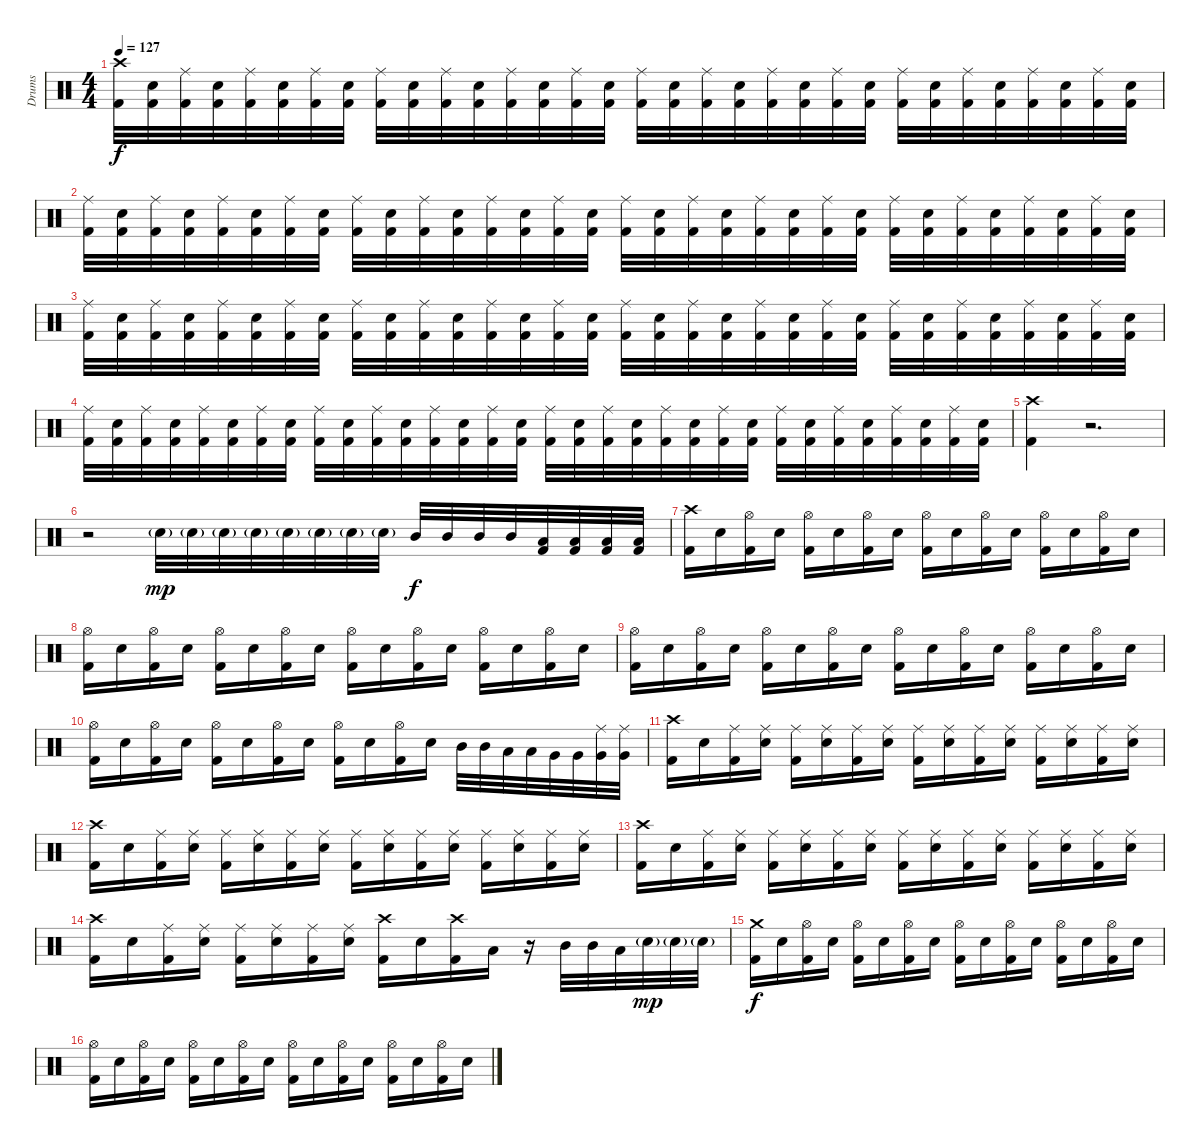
\track ("Drums" "Drums") {instrument percussion}
\staff {score}
\articulation defaults
\ts (4 4)
\tempo 127
\clef neutral
\ks c
("Crash high (hit)" "Kick (hit) 2").32{dy f} ("Electric Snare (hit)" "Kick (hit) 2").32 ("Ride (middle)" "Kick (hit) 2").32 ("Electric Snare (hit)" "Kick (hit) 2").32 ("Ride (middle)" "Kick (hit) 2").32 ("Electric Snare (hit)" "Kick (hit) 2").32 ("Ride (middle)" "Kick (hit) 2").32 ("Electric Snare (hit)" "Kick (hit) 2").32 ("Ride (middle)" "Kick (hit) 2").32 ("Electric Snare (hit)" "Kick (hit) 2").32 ("Ride (middle)" "Kick (hit) 2").32 ("Electric Snare (hit)" "Kick (hit) 2").32 ("Ride (middle)" "Kick (hit) 2").32 ("Electric Snare (hit)" "Kick (hit) 2").32 ("Ride (middle)" "Kick (hit) 2").32 ("Electric Snare (hit)" "Kick (hit) 2").32 ("Ride (middle)" "Kick (hit) 2").32 ("Electric Snare (hit)" "Kick (hit) 2").32 ("Ride (middle)" "Kick (hit) 2").32 ("Electric Snare (hit)" "Kick (hit) 2").32 ("Ride (middle)" "Kick (hit) 2").32 ("Electric Snare (hit)" "Kick (hit) 2").32 ("Ride (middle)" "Kick (hit) 2").32 ("Electric Snare (hit)" "Kick (hit) 2").32 ("Ride (middle)" "Kick (hit) 2").32 ("Electric Snare (hit)" "Kick (hit) 2").32 ("Ride (middle)" "Kick (hit) 2").32 ("Electric Snare (hit)" "Kick (hit) 2").32 ("Ride (middle)" "Kick (hit) 2").32 ("Electric Snare (hit)" "Kick (hit) 2").32 ("Ride (middle)" "Kick (hit) 2").32 ("Electric Snare (hit)" "Kick (hit) 2").32 |
("Ride (middle)" "Kick (hit) 2").32 ("Electric Snare (hit)" "Kick (hit) 2").32 ("Ride (middle)" "Kick (hit) 2").32 ("Electric Snare (hit)" "Kick (hit) 2").32 ("Ride (middle)" "Kick (hit) 2").32 ("Electric Snare (hit)" "Kick (hit) 2").32 ("Ride (middle)" "Kick (hit) 2").32 ("Electric Snare (hit)" "Kick (hit) 2").32 ("Ride (middle)" "Kick (hit) 2").32 ("Electric Snare (hit)" "Kick (hit) 2").32 ("Ride (middle)" "Kick (hit) 2").32 ("Electric Snare (hit)" "Kick (hit) 2").32 ("Ride (middle)" "Kick (hit) 2").32 ("Electric Snare (hit)" "Kick (hit) 2").32 ("Ride (middle)" "Kick (hit) 2").32 ("Electric Snare (hit)" "Kick (hit) 2").32 ("Ride (middle)" "Kick (hit) 2").32 ("Electric Snare (hit)" "Kick (hit) 2").32 ("Ride (middle)" "Kick (hit) 2").32 ("Electric Snare (hit)" "Kick (hit) 2").32 ("Ride (middle)" "Kick (hit) 2").32 ("Electric Snare (hit)" "Kick (hit) 2").32 ("Ride (middle)" "Kick (hit) 2").32 ("Electric Snare (hit)" "Kick (hit) 2").32 ("Ride (middle)" "Kick (hit) 2").32 ("Electric Snare (hit)" "Kick (hit) 2").32 ("Ride (middle)" "Kick (hit) 2").32 ("Electric Snare (hit)" "Kick (hit) 2").32 ("Ride (middle)" "Kick (hit) 2").32 ("Electric Snare (hit)" "Kick (hit) 2").32 ("Ride (middle)" "Kick (hit) 2").32 ("Electric Snare (hit)" "Kick (hit) 2").32 |
("Ride (middle)" "Kick (hit) 2").32 ("Electric Snare (hit)" "Kick (hit) 2").32 ("Ride (middle)" "Kick (hit) 2").32 ("Electric Snare (hit)" "Kick (hit) 2").32 ("Ride (middle)" "Kick (hit) 2").32 ("Electric Snare (hit)" "Kick (hit) 2").32 ("Ride (middle)" "Kick (hit) 2").32 ("Electric Snare (hit)" "Kick (hit) 2").32 ("Ride (middle)" "Kick (hit) 2").32 ("Electric Snare (hit)" "Kick (hit) 2").32 ("Ride (middle)" "Kick (hit) 2").32 ("Electric Snare (hit)" "Kick (hit) 2").32 ("Ride (middle)" "Kick (hit) 2").32 ("Electric Snare (hit)" "Kick (hit) 2").32 ("Ride (middle)" "Kick (hit) 2").32 ("Electric Snare (hit)" "Kick (hit) 2").32 ("Ride (middle)" "Kick (hit) 2").32 ("Electric Snare (hit)" "Kick (hit) 2").32 ("Ride (middle)" "Kick (hit) 2").32 ("Electric Snare (hit)" "Kick (hit) 2").32 ("Ride (middle)" "Kick (hit) 2").32 ("Electric Snare (hit)" "Kick (hit) 2").32 ("Ride (middle)" "Kick (hit) 2").32 ("Electric Snare (hit)" "Kick (hit) 2").32 ("Ride (middle)" "Kick (hit) 2").32 ("Electric Snare (hit)" "Kick (hit) 2").32 ("Ride (middle)" "Kick (hit) 2").32 ("Electric Snare (hit)" "Kick (hit) 2").32 ("Ride (middle)" "Kick (hit) 2").32 ("Electric Snare (hit)" "Kick (hit) 2").32 ("Ride (middle)" "Kick (hit) 2").32 ("Electric Snare (hit)" "Kick (hit) 2").32 |
("Ride (middle)" "Kick (hit) 2").32 ("Electric Snare (hit)" "Kick (hit) 2").32 ("Ride (middle)" "Kick (hit) 2").32 ("Electric Snare (hit)" "Kick (hit) 2").32 ("Ride (middle)" "Kick (hit) 2").32 ("Electric Snare (hit)" "Kick (hit) 2").32 ("Ride (middle)" "Kick (hit) 2").32 ("Electric Snare (hit)" "Kick (hit) 2").32 ("Ride (middle)" "Kick (hit) 2").32 ("Electric Snare (hit)" "Kick (hit) 2").32 ("Ride (middle)" "Kick (hit) 2").32 ("Electric Snare (hit)" "Kick (hit) 2").32 ("Ride (middle)" "Kick (hit) 2").32 ("Electric Snare (hit)" "Kick (hit) 2").32 ("Ride (middle)" "Kick (hit) 2").32 ("Electric Snare (hit)" "Kick (hit) 2").32 ("Ride (middle)" "Kick (hit) 2").32 ("Electric Snare (hit)" "Kick (hit) 2").32 ("Ride (middle)" "Kick (hit) 2").32 ("Electric Snare (hit)" "Kick (hit) 2").32 ("Ride (middle)" "Kick (hit) 2").32 ("Electric Snare (hit)" "Kick (hit) 2").32 ("Ride (middle)" "Kick (hit) 2").32 ("Electric Snare (hit)" "Kick (hit) 2").32 ("Ride (middle)" "Kick (hit) 2").32 ("Electric Snare (hit)" "Kick (hit) 2").32 ("Ride (middle)" "Kick (hit) 2").32 ("Electric Snare (hit)" "Kick (hit) 2").32 ("Ride (middle)" "Kick (hit) 2").32 ("Electric Snare (hit)" "Kick (hit) 2").32 ("Ride (middle)" "Kick (hit) 2").32 ("Electric Snare (hit)" "Kick (hit) 2").32 |
("Crash high (hit)" "Kick (hit) 2").4 r.2{d volume 0} |
r.2 "Electric Snare (hit)"{g}.32{dy mp volume 13} "Electric Snare (hit)"{g}.32 "Electric Snare (hit)"{g}.32 "Electric Snare (hit)"{g}.32 "Electric Snare (hit)"{g}.32 "Electric Snare (hit)"{g}.32 "Electric Snare (hit)"{g}.32 "Electric Snare (hit)"{g}.32 "Mid Tom (hit)".32{dy f} "Mid Tom (hit)".32 "Mid Tom (hit)".32 "Mid Tom (hit)".32 ("Low Tom (hit)" "Kick (hit) 2").32 ("Low Tom (hit)" "Kick (hit) 2").32 ("Low Tom (hit)" "Kick (hit) 2").32 ("Low Tom (hit)" "Kick (hit) 2").32 |
("Crash high (hit)" "Kick (hit) 2").16 "Electric Snare (hit)".16 ("Hi-Hat (open)" "Kick (hit) 2").16 "Electric Snare (hit)".16 ("Hi-Hat (open)" "Kick (hit) 2").16 "Electric Snare (hit)".16 ("Hi-Hat (open)" "Kick (hit) 2").16 "Electric Snare (hit)".16 ("Hi-Hat (open)" "Kick (hit) 2").16 "Electric Snare (hit)".16 ("Hi-Hat (open)" "Kick (hit) 2").16 "Electric Snare (hit)".16 ("Hi-Hat (open)" "Kick (hit) 2").16 "Electric Snare (hit)".16 ("Hi-Hat (open)" "Kick (hit) 2").16 "Electric Snare (hit)".16 |
("Hi-Hat (open)" "Kick (hit) 2").16 "Electric Snare (hit)".16 ("Hi-Hat (open)" "Kick (hit) 2").16 "Electric Snare (hit)".16 ("Hi-Hat (open)" "Kick (hit) 2").16 "Electric Snare (hit)".16 ("Hi-Hat (open)" "Kick (hit) 2").16 "Electric Snare (hit)".16 ("Hi-Hat (open)" "Kick (hit) 2").16 "Electric Snare (hit)".16 ("Hi-Hat (open)" "Kick (hit) 2").16 "Electric Snare (hit)".16 ("Hi-Hat (open)" "Kick (hit) 2").16 "Electric Snare (hit)".16 ("Hi-Hat (open)" "Kick (hit) 2").16 "Electric Snare (hit)".16 |
("Hi-Hat (open)" "Kick (hit) 2").16 "Electric Snare (hit)".16 ("Hi-Hat (open)" "Kick (hit) 2").16 "Electric Snare (hit)".16 ("Hi-Hat (open)" "Kick (hit) 2").16 "Electric Snare (hit)".16 ("Hi-Hat (open)" "Kick (hit) 2").16 "Electric Snare (hit)".16 ("Hi-Hat (open)" "Kick (hit) 2").16 "Electric Snare (hit)".16 ("Hi-Hat (open)" "Kick (hit) 2").16 "Electric Snare (hit)".16 ("Hi-Hat (open)" "Kick (hit) 2").16 "Electric Snare (hit)".16 ("Hi-Hat (open)" "Kick (hit) 2").16 "Electric Snare (hit)".16 |
("Hi-Hat (open)" "Kick (hit) 2").16 "Electric Snare (hit)".16 ("Hi-Hat (open)" "Kick (hit) 2").16 "Electric Snare (hit)".16 ("Hi-Hat (open)" "Kick (hit) 2").16 "Electric Snare (hit)".16 ("Hi-Hat (open)" "Kick (hit) 2").16 "Electric Snare (hit)".16 ("Hi-Hat (open)" "Kick (hit) 2").16 "Electric Snare (hit)".16 ("Hi-Hat (open)" "Kick (hit) 2").16 "Electric Snare (hit)".16 "Mid Tom (hit)".32 "Mid Tom (hit)".32 "Low Tom (hit)".32 "Low Tom (hit)".32 "Very Low Tom (hit)".32 "Very Low Tom (hit)".32 ("Ride (middle)" "Very Low Tom (hit)").32 ("Ride (middle)" "Very Low Tom (hit)").32 |
("Crash high (hit)" "Kick (hit) 2").16 "Electric Snare (hit)".16 ("Ride (middle)" "Kick (hit) 2").16 ("Ride (middle)" "Electric Snare (hit)").16 ("Ride (middle)" "Kick (hit) 2").16 ("Ride (middle)" "Electric Snare (hit)").16 ("Ride (middle)" "Kick (hit) 2").16 ("Ride (middle)" "Electric Snare (hit)").16 ("Ride (middle)" "Kick (hit) 2").16 ("Ride (middle)" "Electric Snare (hit)").16 ("Ride (middle)" "Kick (hit) 2").16 ("Ride (middle)" "Electric Snare (hit)").16 ("Ride (middle)" "Kick (hit) 2").16 ("Ride (middle)" "Electric Snare (hit)").16 ("Ride (middle)" "Kick (hit) 2").16 ("Ride (middle)" "Electric Snare (hit)").16 |
("Crash high (hit)" "Kick (hit) 2").16 "Electric Snare (hit)".16 ("Ride (middle)" "Kick (hit) 2").16 ("Ride (middle)" "Electric Snare (hit)").16 ("Ride (middle)" "Kick (hit) 2").16 ("Ride (middle)" "Electric Snare (hit)").16 ("Ride (middle)" "Kick (hit) 2").16 ("Ride (middle)" "Electric Snare (hit)").16 ("Ride (middle)" "Kick (hit) 2").16 ("Ride (middle)" "Electric Snare (hit)").16 ("Ride (middle)" "Kick (hit) 2").16 ("Ride (middle)" "Electric Snare (hit)").16 ("Ride (middle)" "Kick (hit) 2").16 ("Ride (middle)" "Electric Snare (hit)").16 ("Ride (middle)" "Kick (hit) 2").16 ("Ride (middle)" "Electric Snare (hit)").16 |
("Crash high (hit)" "Kick (hit) 2").16 "Electric Snare (hit)".16 ("Ride (middle)" "Kick (hit) 2").16 ("Ride (middle)" "Electric Snare (hit)").16 ("Ride (middle)" "Kick (hit) 2").16 ("Ride (middle)" "Electric Snare (hit)").16 ("Ride (middle)" "Kick (hit) 2").16 ("Ride (middle)" "Electric Snare (hit)").16 ("Ride (middle)" "Kick (hit) 2").16 ("Ride (middle)" "Electric Snare (hit)").16 ("Ride (middle)" "Kick (hit) 2").16 ("Ride (middle)" "Electric Snare (hit)").16 ("Ride (middle)" "Kick (hit) 2").16 ("Ride (middle)" "Electric Snare (hit)").16 ("Ride (middle)" "Kick (hit) 2").16 ("Ride (middle)" "Electric Snare (hit)").16 |
("Crash high (hit)" "Kick (hit) 2").16 "Electric Snare (hit)".16 ("Ride (middle)" "Kick (hit) 2").16 ("Ride (middle)" "Electric Snare (hit)").16 ("Ride (middle)" "Kick (hit) 2").16 ("Ride (middle)" "Electric Snare (hit)").16 ("Ride (middle)" "Kick (hit) 2").16 ("Ride (middle)" "Electric Snare (hit)").16 ("Crash high (hit)" "Kick (hit) 2").16 "Electric Snare (hit)".16 ("Crash high (hit)" "Kick (hit) 2").16 "Low Tom (hit)".16 r.16 "Mid Tom (hit)".32 "Mid Tom (hit)".32 "Low Tom (hit)".32 "Electric Snare (hit)"{g}.32{dy mp} "Electric Snare (hit)"{g}.32 "Electric Snare (hit)"{g}.32 |
("Crash medium (hit)" "Kick (hit) 2").16{dy f} "Electric Snare (hit)".16 ("Hi-Hat (open)" "Kick (hit) 2").16 "Electric Snare (hit)".16 ("Hi-Hat (open)" "Kick (hit) 2").16 "Electric Snare (hit)".16 ("Hi-Hat (open)" "Kick (hit) 2").16 "Electric Snare (hit)".16 ("Hi-Hat (open)" "Kick (hit) 2").16 "Electric Snare (hit)".16 ("Hi-Hat (open)" "Kick (hit) 2").16 "Electric Snare (hit)".16 ("Hi-Hat (open)" "Kick (hit) 2").16 "Electric Snare (hit)".16 ("Hi-Hat (open)" "Kick (hit) 2").16 "Electric Snare (hit)".16 |
("Hi-Hat (open)" "Kick (hit) 2").16 "Electric Snare (hit)".16 ("Hi-Hat (open)" "Kick (hit) 2").16 "Electric Snare (hit)".16 ("Hi-Hat (open)" "Kick (hit) 2").16 "Electric Snare (hit)".16 ("Hi-Hat (open)" "Kick (hit) 2").16 "Electric Snare (hit)".16 ("Hi-Hat (open)" "Kick (hit) 2").16 "Electric Snare (hit)".16 ("Hi-Hat (open)" "Kick (hit) 2").16 "Electric Snare (hit)".16 ("Hi-Hat (open)" "Kick (hit) 2").16 "Electric Snare (hit)".16 ("Hi-Hat (open)" "Kick (hit) 2").16 "Electric Snare (hit)".16
